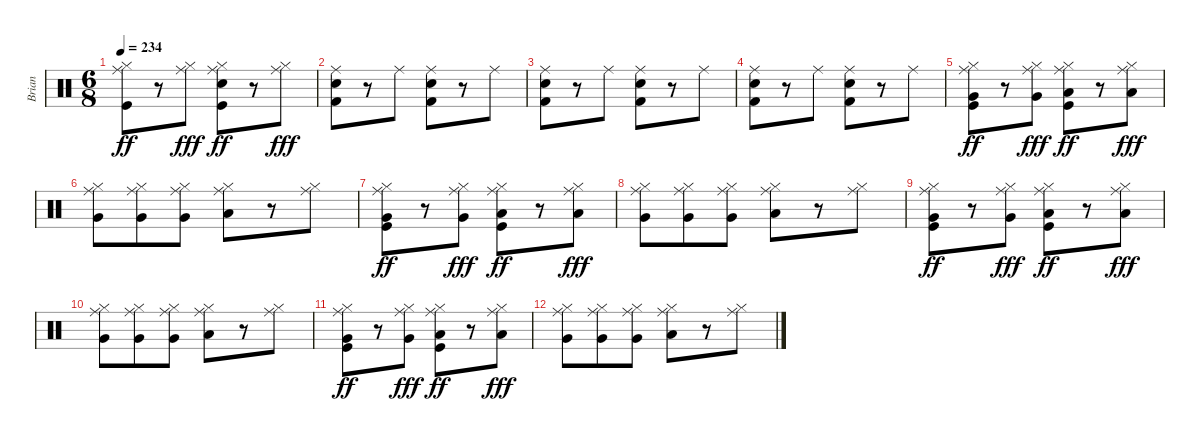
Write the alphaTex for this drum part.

\track ("Brian" "Brian") {instrument percussion}
\staff {score}
\articulation defaults
\ts (6 8)
\tempo 234
\clef neutral
\ks c
("Ride (middle)" "Hi-Hat (closed)" "Kick (hit)").8{dy ff} r.8 ("Ride (middle)" "Hi-Hat (closed)").8{dy fff} ("Ride (middle)" "Hi-Hat (closed)" "Electric Snare (hit)" "Kick (hit)").8{dy ff} r.8 ("Ride (middle)" "Hi-Hat (closed)").8{dy fff} |
("Ride (middle)" "Electric Snare (hit)" "Kick (hit) 2").8 r.8 "Ride (middle)".8 ("Electric Snare (hit)" "Ride (middle)" "Kick (hit) 2").8 r.8 "Ride (middle)".8 |
("Ride (middle)" "Electric Snare (hit)" "Kick (hit) 2").8 r.8 "Ride (middle)".8 ("Electric Snare (hit)" "Ride (middle)" "Kick (hit) 2").8 r.8 "Ride (middle)".8 |
("Ride (middle)" "Electric Snare (hit)" "Kick (hit) 2").8 r.8 "Ride (middle)".8 ("Electric Snare (hit)" "Ride (middle)" "Kick (hit) 2").8 r.8 "Ride (middle)".8 |
("Ride (middle)" "Hi-Hat (closed)" "Very Low Tom (hit)" "Kick (hit)").8{dy ff} r.8 ("Ride (middle)" "Hi-Hat (closed)" "Very Low Tom (hit)").8{dy fff} ("Ride (middle)" "Hi-Hat (closed)" "Low Floor Tom (hit)" "Kick (hit)").8{dy ff} r.8 ("Ride (middle)" "Hi-Hat (closed)" "Low Floor Tom (hit)").8{dy fff} |
("Ride (middle)" "Hi-Hat (closed)" "Very Low Tom (hit)").8 ("Ride (middle)" "Hi-Hat (closed)" "Very Low Tom (hit)").8 ("Ride (middle)" "Hi-Hat (closed)" "Very Low Tom (hit)").8 ("Ride (middle)" "Hi-Hat (closed)" "Low Floor Tom (hit)").8 r.8 ("Ride (middle)" "Hi-Hat (closed)").8 |
("Ride (middle)" "Hi-Hat (closed)" "Very Low Tom (hit)" "Kick (hit)").8{dy ff} r.8 ("Ride (middle)" "Hi-Hat (closed)" "Very Low Tom (hit)").8{dy fff} ("Ride (middle)" "Hi-Hat (closed)" "Low Floor Tom (hit)" "Kick (hit)").8{dy ff} r.8 ("Ride (middle)" "Hi-Hat (closed)" "Low Floor Tom (hit)").8{dy fff} |
("Ride (middle)" "Hi-Hat (closed)" "Very Low Tom (hit)").8 ("Ride (middle)" "Hi-Hat (closed)" "Very Low Tom (hit)").8 ("Ride (middle)" "Hi-Hat (closed)" "Very Low Tom (hit)").8 ("Ride (middle)" "Hi-Hat (closed)" "Low Floor Tom (hit)").8 r.8 ("Ride (middle)" "Hi-Hat (closed)").8 |
("Ride (middle)" "Hi-Hat (closed)" "Very Low Tom (hit)" "Kick (hit)").8{dy ff} r.8 ("Ride (middle)" "Hi-Hat (closed)" "Very Low Tom (hit)").8{dy fff} ("Ride (middle)" "Hi-Hat (closed)" "Low Floor Tom (hit)" "Kick (hit)").8{dy ff} r.8 ("Ride (middle)" "Hi-Hat (closed)" "Low Floor Tom (hit)").8{dy fff} |
("Ride (middle)" "Hi-Hat (closed)" "Very Low Tom (hit)").8 ("Ride (middle)" "Hi-Hat (closed)" "Very Low Tom (hit)").8 ("Ride (middle)" "Hi-Hat (closed)" "Very Low Tom (hit)").8 ("Ride (middle)" "Hi-Hat (closed)" "Low Floor Tom (hit)").8 r.8 ("Ride (middle)" "Hi-Hat (closed)").8 |
("Ride (middle)" "Hi-Hat (closed)" "Very Low Tom (hit)" "Kick (hit)").8{dy ff} r.8 ("Ride (middle)" "Hi-Hat (closed)" "Very Low Tom (hit)").8{dy fff} ("Ride (middle)" "Hi-Hat (closed)" "Low Floor Tom (hit)" "Kick (hit)").8{dy ff} r.8 ("Ride (middle)" "Hi-Hat (closed)" "Low Floor Tom (hit)").8{dy fff} |
("Ride (middle)" "Hi-Hat (closed)" "Very Low Tom (hit)").8 ("Ride (middle)" "Hi-Hat (closed)" "Very Low Tom (hit)").8 ("Ride (middle)" "Hi-Hat (closed)" "Very Low Tom (hit)").8 ("Ride (middle)" "Hi-Hat (closed)" "Low Floor Tom (hit)").8 r.8 ("Ride (middle)" "Hi-Hat (closed)").8
